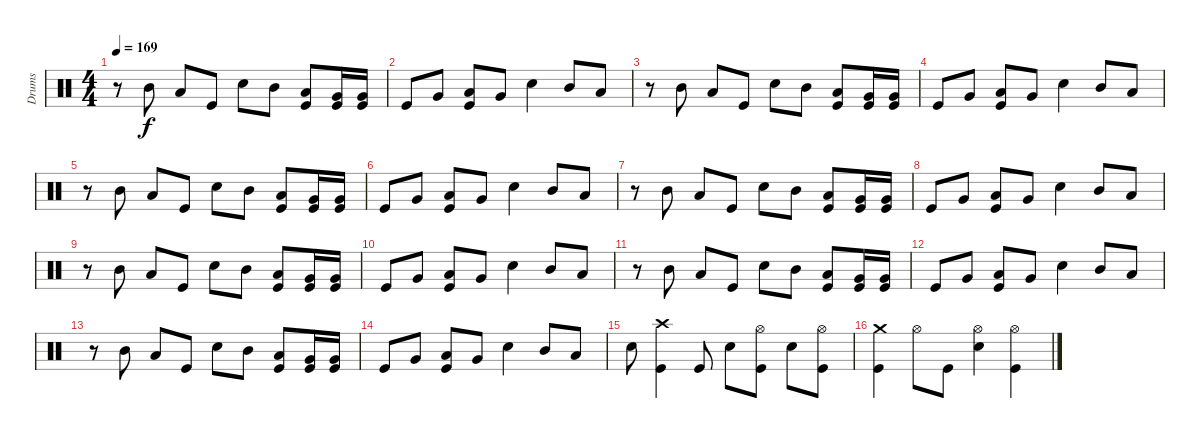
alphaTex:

\track ("Drums" "Drums") {instrument percussion}
\staff {score}
\articulation defaults
\ts (4 4)
\tempo 169
\clef neutral
\ks c
r.8{dy f} "Mid Tom (hit)".8 "Low Tom (hit)".8 "Kick (hit)".8 "Snare (hit) 2".8 "Mid Tom (hit)".8 ("Low Tom (hit)" "Kick (hit)").8 ("Very Low Tom (hit)" "Kick (hit)").16 ("Very Low Tom (hit)" "Kick (hit)").16 |
"Kick (hit)".8 "Very Low Tom (hit)".8 ("Low Tom (hit)" "Kick (hit)").8 "Very Low Tom (hit)".8 "Snare (hit) 2".4 "Mid Tom (hit)".8 "Low Tom (hit)".8 |
r.8 "Mid Tom (hit)".8 "Low Tom (hit)".8 "Kick (hit)".8 "Snare (hit) 2".8 "Mid Tom (hit)".8 ("Low Tom (hit)" "Kick (hit)").8 ("Very Low Tom (hit)" "Kick (hit)").16 ("Very Low Tom (hit)" "Kick (hit)").16 |
"Kick (hit)".8 "Very Low Tom (hit)".8 ("Low Tom (hit)" "Kick (hit)").8 "Very Low Tom (hit)".8 "Snare (hit) 2".4 "Mid Tom (hit)".8 "Low Tom (hit)".8 |
r.8 "Mid Tom (hit)".8 "Low Tom (hit)".8 "Kick (hit)".8 "Snare (hit) 2".8 "Mid Tom (hit)".8 ("Low Tom (hit)" "Kick (hit)").8 ("Very Low Tom (hit)" "Kick (hit)").16 ("Very Low Tom (hit)" "Kick (hit)").16 |
"Kick (hit)".8 "Very Low Tom (hit)".8 ("Low Tom (hit)" "Kick (hit)").8 "Very Low Tom (hit)".8 "Snare (hit) 2".4 "Mid Tom (hit)".8 "Low Tom (hit)".8 |
r.8 "Mid Tom (hit)".8 "Low Tom (hit)".8 "Kick (hit)".8 "Snare (hit) 2".8 "Mid Tom (hit)".8 ("Low Tom (hit)" "Kick (hit)").8 ("Very Low Tom (hit)" "Kick (hit)").16 ("Very Low Tom (hit)" "Kick (hit)").16 |
"Kick (hit)".8 "Very Low Tom (hit)".8 ("Low Tom (hit)" "Kick (hit)").8 "Very Low Tom (hit)".8 "Snare (hit) 2".4 "Mid Tom (hit)".8 "Low Tom (hit)".8 |
r.8 "Mid Tom (hit)".8 "Low Tom (hit)".8 "Kick (hit)".8 "Snare (hit) 2".8 "Mid Tom (hit)".8 ("Low Tom (hit)" "Kick (hit)").8 ("Very Low Tom (hit)" "Kick (hit)").16 ("Very Low Tom (hit)" "Kick (hit)").16 |
"Kick (hit)".8 "Very Low Tom (hit)".8 ("Low Tom (hit)" "Kick (hit)").8 "Very Low Tom (hit)".8 "Snare (hit) 2".4 "Mid Tom (hit)".8 "Low Tom (hit)".8 |
r.8 "Mid Tom (hit)".8 "Low Tom (hit)".8 "Kick (hit)".8 "Snare (hit) 2".8 "Mid Tom (hit)".8 ("Low Tom (hit)" "Kick (hit)").8 ("Very Low Tom (hit)" "Kick (hit)").16 ("Very Low Tom (hit)" "Kick (hit)").16 |
"Kick (hit)".8 "Very Low Tom (hit)".8 ("Low Tom (hit)" "Kick (hit)").8 "Very Low Tom (hit)".8 "Snare (hit) 2".4 "Mid Tom (hit)".8 "Low Tom (hit)".8 |
r.8 "Mid Tom (hit)".8 "Low Tom (hit)".8 "Kick (hit)".8 "Snare (hit) 2".8 "Mid Tom (hit)".8 ("Low Tom (hit)" "Kick (hit)").8 ("Very Low Tom (hit)" "Kick (hit)").16 ("Very Low Tom (hit)" "Kick (hit)").16 |
"Kick (hit)".8 "Very Low Tom (hit)".8 ("Low Tom (hit)" "Kick (hit)").8 "Very Low Tom (hit)".8 "Snare (hit) 2".4 "Mid Tom (hit)".8 "Low Tom (hit)".8 |
"Snare (hit) 2".8 ("Crash high (hit)" "Kick (hit)").4 "Kick (hit)".8 "Snare (hit) 2".8 ("Hi-Hat (open)" "Kick (hit)").8 "Snare (hit) 2".8 ("Hi-Hat (open)" "Kick (hit)").8 |
("Crash medium (hit)" "Kick (hit)").4 "Hi-Hat (open)".8 "Kick (hit)".8 ("Hi-Hat (open)" "Snare (hit) 2").4 ("Hi-Hat (open)" "Kick (hit)").4
